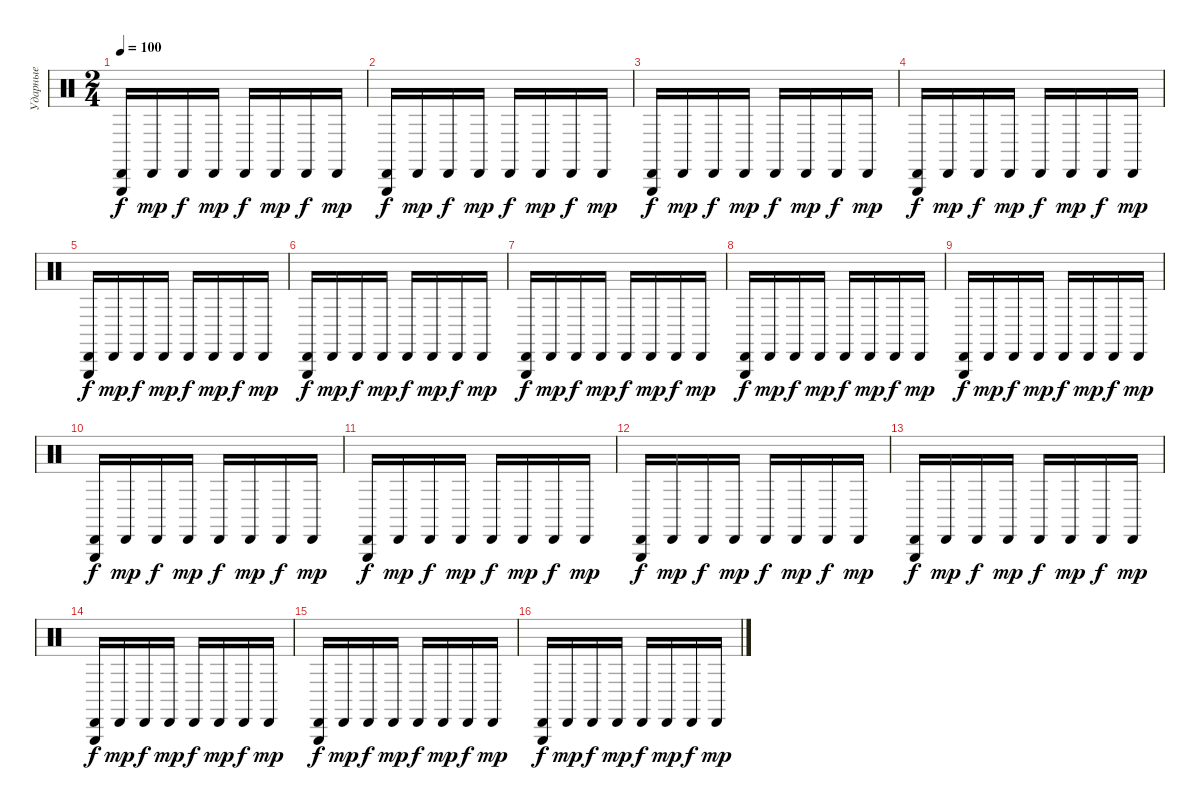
\track ("Ударные" "Ударные") {instrument percussion}
\staff {score}
\articulation defaults
\ts (2 4)
\tempo 100
\clef neutral
\ks c
("Triangle (hit)" "Cabasa (hit)").16{dy f} "Cabasa (hit)".16{dy mp} "Cabasa (hit)".16{dy f} "Cabasa (hit)".16{dy mp} "Cabasa (hit)".16{dy f} "Cabasa (hit)".16{dy mp} "Cabasa (hit)".16{dy f} "Cabasa (hit)".16{dy mp} |
("Triangle (hit)" "Cabasa (hit)").16{dy f} "Cabasa (hit)".16{dy mp} "Cabasa (hit)".16{dy f} "Cabasa (hit)".16{dy mp} "Cabasa (hit)".16{dy f} "Cabasa (hit)".16{dy mp} "Cabasa (hit)".16{dy f} "Cabasa (hit)".16{dy mp} |
("Triangle (hit)" "Cabasa (hit)").16{dy f} "Cabasa (hit)".16{dy mp} "Cabasa (hit)".16{dy f} "Cabasa (hit)".16{dy mp} "Cabasa (hit)".16{dy f} "Cabasa (hit)".16{dy mp} "Cabasa (hit)".16{dy f} "Cabasa (hit)".16{dy mp} |
("Triangle (hit)" "Cabasa (hit)").16{dy f} "Cabasa (hit)".16{dy mp} "Cabasa (hit)".16{dy f} "Cabasa (hit)".16{dy mp} "Cabasa (hit)".16{dy f} "Cabasa (hit)".16{dy mp} "Cabasa (hit)".16{dy f} "Cabasa (hit)".16{dy mp} |
("Triangle (hit)" "Cabasa (hit)").16{dy f} "Cabasa (hit)".16{dy mp} "Cabasa (hit)".16{dy f} "Cabasa (hit)".16{dy mp} "Cabasa (hit)".16{dy f} "Cabasa (hit)".16{dy mp} "Cabasa (hit)".16{dy f} "Cabasa (hit)".16{dy mp} |
("Triangle (hit)" "Cabasa (hit)").16{dy f} "Cabasa (hit)".16{dy mp} "Cabasa (hit)".16{dy f} "Cabasa (hit)".16{dy mp} "Cabasa (hit)".16{dy f} "Cabasa (hit)".16{dy mp} "Cabasa (hit)".16{dy f} "Cabasa (hit)".16{dy mp} |
("Triangle (hit)" "Cabasa (hit)").16{dy f} "Cabasa (hit)".16{dy mp} "Cabasa (hit)".16{dy f} "Cabasa (hit)".16{dy mp} "Cabasa (hit)".16{dy f} "Cabasa (hit)".16{dy mp} "Cabasa (hit)".16{dy f} "Cabasa (hit)".16{dy mp} |
("Triangle (hit)" "Cabasa (hit)").16{dy f} "Cabasa (hit)".16{dy mp} "Cabasa (hit)".16{dy f} "Cabasa (hit)".16{dy mp} "Cabasa (hit)".16{dy f} "Cabasa (hit)".16{dy mp} "Cabasa (hit)".16{dy f} "Cabasa (hit)".16{dy mp} |
("Triangle (hit)" "Cabasa (hit)").16{dy f} "Cabasa (hit)".16{dy mp} "Cabasa (hit)".16{dy f} "Cabasa (hit)".16{dy mp} "Cabasa (hit)".16{dy f} "Cabasa (hit)".16{dy mp} "Cabasa (hit)".16{dy f} "Cabasa (hit)".16{dy mp} |
("Triangle (hit)" "Cabasa (hit)").16{dy f} "Cabasa (hit)".16{dy mp} "Cabasa (hit)".16{dy f} "Cabasa (hit)".16{dy mp} "Cabasa (hit)".16{dy f} "Cabasa (hit)".16{dy mp} "Cabasa (hit)".16{dy f} "Cabasa (hit)".16{dy mp} |
("Triangle (hit)" "Cabasa (hit)").16{dy f} "Cabasa (hit)".16{dy mp} "Cabasa (hit)".16{dy f} "Cabasa (hit)".16{dy mp} "Cabasa (hit)".16{dy f} "Cabasa (hit)".16{dy mp} "Cabasa (hit)".16{dy f} "Cabasa (hit)".16{dy mp} |
("Triangle (hit)" "Cabasa (hit)").16{dy f} "Cabasa (hit)".16{dy mp} "Cabasa (hit)".16{dy f} "Cabasa (hit)".16{dy mp} "Cabasa (hit)".16{dy f} "Cabasa (hit)".16{dy mp} "Cabasa (hit)".16{dy f} "Cabasa (hit)".16{dy mp} |
("Triangle (hit)" "Cabasa (hit)").16{dy f} "Cabasa (hit)".16{dy mp} "Cabasa (hit)".16{dy f} "Cabasa (hit)".16{dy mp} "Cabasa (hit)".16{dy f} "Cabasa (hit)".16{dy mp} "Cabasa (hit)".16{dy f} "Cabasa (hit)".16{dy mp} |
("Triangle (hit)" "Cabasa (hit)").16{dy f} "Cabasa (hit)".16{dy mp} "Cabasa (hit)".16{dy f} "Cabasa (hit)".16{dy mp} "Cabasa (hit)".16{dy f} "Cabasa (hit)".16{dy mp} "Cabasa (hit)".16{dy f} "Cabasa (hit)".16{dy mp} |
("Triangle (hit)" "Cabasa (hit)").16{dy f} "Cabasa (hit)".16{dy mp} "Cabasa (hit)".16{dy f} "Cabasa (hit)".16{dy mp} "Cabasa (hit)".16{dy f} "Cabasa (hit)".16{dy mp} "Cabasa (hit)".16{dy f} "Cabasa (hit)".16{dy mp} |
("Triangle (hit)" "Cabasa (hit)").16{dy f} "Cabasa (hit)".16{dy mp} "Cabasa (hit)".16{dy f} "Cabasa (hit)".16{dy mp} "Cabasa (hit)".16{dy f} "Cabasa (hit)".16{dy mp} "Cabasa (hit)".16{dy f} "Cabasa (hit)".16{dy mp}
